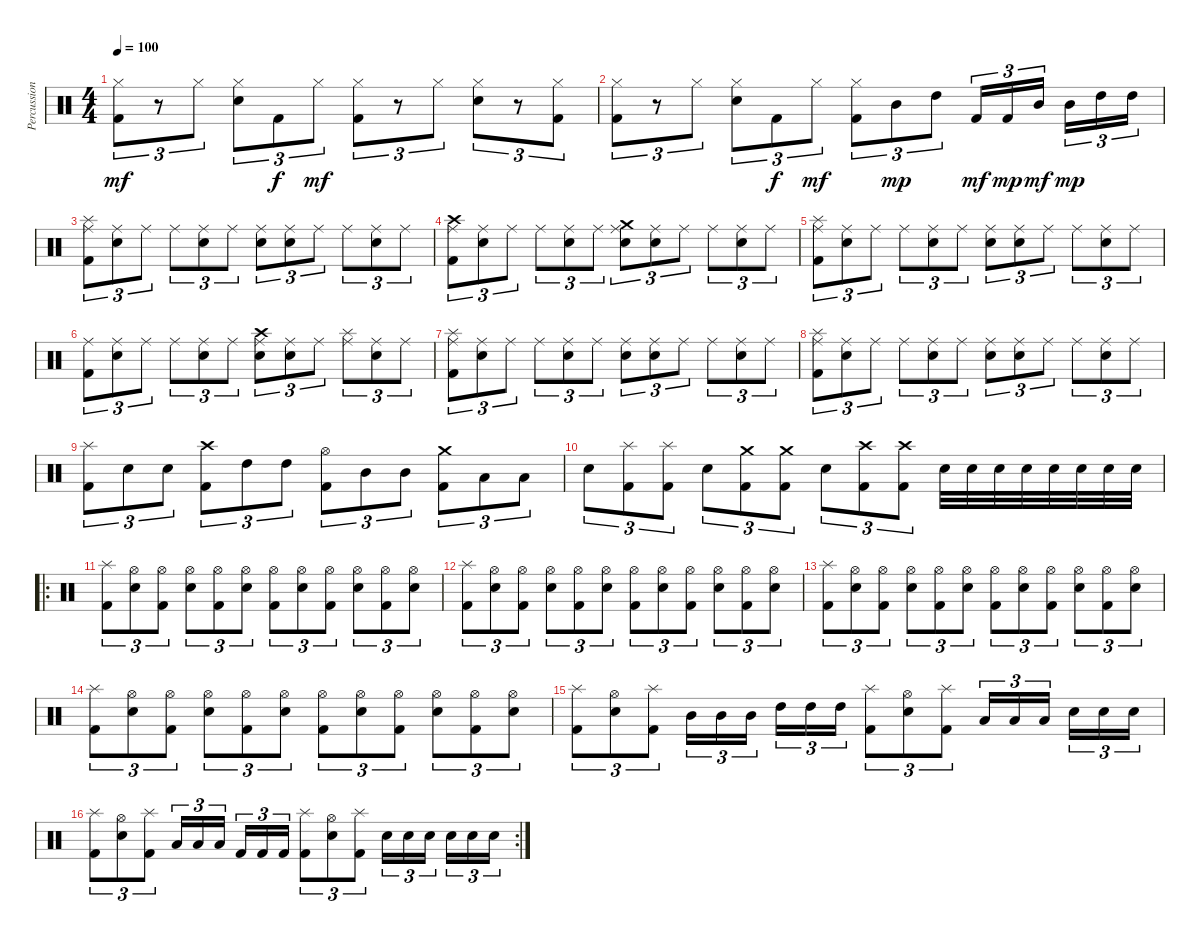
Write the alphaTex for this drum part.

\track ("Percussion" "Percussion") {instrument percussion}
\staff {score}
\articulation defaults
\ts (4 4)
\tempo 100
\clef neutral
\ks c
("Kick (hit) 2" "Hi-Hat (closed)").8{tu (3 2) dy mf} r.8{tu (3 2)} "Hi-Hat (closed)".8{tu (3 2)} ("Snare (hit) 2" "Hi-Hat (closed)").8{tu (3 2)} "Kick (hit) 2".8{tu (3 2) dy f} "Hi-Hat (closed)".8{tu (3 2) dy mf} ("Kick (hit) 2" "Hi-Hat (closed)").8{tu (3 2)} r.8{tu (3 2)} "Hi-Hat (closed)".8{tu (3 2)} ("Snare (hit) 2" "Hi-Hat (closed)").8{tu (3 2)} r.8{tu (3 2)} ("Kick (hit) 2" "Hi-Hat (closed)").8{tu (3 2)} |
("Kick (hit) 2" "Hi-Hat (closed)").8{tu (3 2)} r.8{tu (3 2)} "Hi-Hat (closed)".8{tu (3 2)} ("Snare (hit) 2" "Hi-Hat (closed)").8{tu (3 2)} "Kick (hit) 2".8{tu (3 2) dy f} "Hi-Hat (closed)".8{tu (3 2) dy mf} ("Kick (hit) 2" "Hi-Hat (closed)").8{tu (3 2)} "Mid Tom (hit)".8{tu (3 2) dy mp} "High Tom (hit)".8{tu (3 2)} "Kick (hit) 2".16{tu (3 2) dy mf} "Kick (hit) 2".16{tu (3 2) dy mp} "Mid Tom (hit)".16{tu (3 2) dy mf beam splitsecondary} "Mid Tom (hit)".16{tu (3 2) dy mp} "High Tom (hit)".16{tu (3 2)} "High Tom (hit)".16{tu (3 2)} |
("Splash (hit)" "Kick (hit) 2" "Ride (middle)").8{tu (3 2)} ("Snare (hit) 2" "Ride (middle)").8{tu (3 2)} "Ride (middle)".8{tu (3 2)} "Ride (middle)".8{tu (3 2)} ("Snare (hit) 2" "Ride (middle)").8{tu (3 2)} "Ride (middle)".8{tu (3 2)} ("Snare (hit) 2" "Ride (middle)").8{tu (3 2)} ("Snare (hit) 2" "Ride (middle)").8{tu (3 2)} "Ride (middle)".8{tu (3 2)} "Ride (middle)".8{tu (3 2)} ("Snare (hit) 2" "Ride (middle)").8{tu (3 2)} "Ride (middle)".8{tu (3 2)} |
("Crash high (hit)" "Kick (hit) 2" "Ride (middle)").8{tu (3 2)} ("Snare (hit) 2" "Ride (middle)").8{tu (3 2)} "Ride (middle)".8{tu (3 2)} "Ride (middle)".8{tu (3 2)} ("Snare (hit) 2" "Ride (middle)").8{tu (3 2)} "Ride (middle)".8{tu (3 2)} ("Crash medium (hit)" "Snare (hit) 2" "Ride (middle)").8{tu (3 2)} ("Snare (hit) 2" "Ride (middle)").8{tu (3 2)} "Ride (middle)".8{tu (3 2)} "Ride (middle)".8{tu (3 2)} ("Snare (hit) 2" "Ride (middle)").8{tu (3 2)} "Ride (middle)".8{tu (3 2)} |
("Splash (hit)" "Kick (hit) 2" "Ride (middle)").8{tu (3 2)} ("Snare (hit) 2" "Ride (middle)").8{tu (3 2)} "Ride (middle)".8{tu (3 2)} "Ride (middle)".8{tu (3 2)} ("Snare (hit) 2" "Ride (middle)").8{tu (3 2)} "Ride (middle)".8{tu (3 2)} ("Snare (hit) 2" "Ride (middle)").8{tu (3 2)} ("Snare (hit) 2" "Ride (middle)").8{tu (3 2)} "Ride (middle)".8{tu (3 2)} "Ride (middle)".8{tu (3 2)} ("Snare (hit) 2" "Ride (middle)").8{tu (3 2)} "Ride (middle)".8{tu (3 2)} |
("Kick (hit) 2" "Ride (middle)").8{tu (3 2)} ("Snare (hit) 2" "Ride (middle)").8{tu (3 2)} "Ride (middle)".8{tu (3 2)} "Ride (middle)".8{tu (3 2)} ("Snare (hit) 2" "Ride (middle)").8{tu (3 2)} "Ride (middle)".8{tu (3 2)} ("Crash high (hit)" "Snare (hit) 2" "Ride (middle)").8{tu (3 2)} ("Snare (hit) 2" "Ride (middle)").8{tu (3 2)} "Ride (middle)".8{tu (3 2)} ("Splash (hit)" "Ride (middle)").8{tu (3 2)} ("Snare (hit) 2" "Ride (middle)").8{tu (3 2)} "Ride (middle)".8{tu (3 2)} |
("Splash (hit)" "Kick (hit) 2" "Ride (middle)").8{tu (3 2)} ("Snare (hit) 2" "Ride (middle)").8{tu (3 2)} "Ride (middle)".8{tu (3 2)} "Ride (middle)".8{tu (3 2)} ("Snare (hit) 2" "Ride (middle)").8{tu (3 2)} "Ride (middle)".8{tu (3 2)} ("Snare (hit) 2" "Ride (middle)").8{tu (3 2)} ("Snare (hit) 2" "Ride (middle)").8{tu (3 2)} "Ride (middle)".8{tu (3 2)} "Ride (middle)".8{tu (3 2)} ("Snare (hit) 2" "Ride (middle)").8{tu (3 2)} "Ride (middle)".8{tu (3 2)} |
("Splash (hit)" "Kick (hit) 2" "Ride (middle)").8{tu (3 2)} ("Snare (hit) 2" "Ride (middle)").8{tu (3 2)} "Ride (middle)".8{tu (3 2)} "Ride (middle)".8{tu (3 2)} ("Snare (hit) 2" "Ride (middle)").8{tu (3 2)} "Ride (middle)".8{tu (3 2)} ("Snare (hit) 2" "Ride (middle)").8{tu (3 2)} ("Snare (hit) 2" "Ride (middle)").8{tu (3 2)} "Ride (middle)".8{tu (3 2)} "Ride (middle)".8{tu (3 2)} ("Snare (hit) 2" "Ride (middle)").8{tu (3 2)} "Ride (middle)".8{tu (3 2)} |
("Kick (hit) 2" "Splash (hit)").8{tu (3 2)} "Snare (hit) 2".8{tu (3 2)} "Snare (hit) 2".8{tu (3 2)} ("Kick (hit) 2" "Crash high (hit)").8{tu (3 2)} "High Tom (hit)".8{tu (3 2)} "High Tom (hit)".8{tu (3 2)} ("Kick (hit) 2" "Hi-Hat (open)").8{tu (3 2)} "Mid Tom (hit)".8{tu (3 2)} "Mid Tom (hit)".8{tu (3 2)} ("Kick (hit) 2" "Crash medium (hit)").8{tu (3 2)} "Low Tom (hit)".8{tu (3 2)} "Low Tom (hit)".8{tu (3 2)} |
"Snare (hit) 2".8{tu (3 2)} ("Splash (hit)" "Kick (hit) 2").8{tu (3 2)} ("Splash (hit)" "Kick (hit) 2").8{tu (3 2)} "Snare (hit) 2".8{tu (3 2)} ("Crash medium (hit)" "Kick (hit) 2").8{tu (3 2)} ("Crash medium (hit)" "Kick (hit) 2").8{tu (3 2)} "Snare (hit) 2".8{tu (3 2)} ("Crash high (hit)" "Kick (hit) 2").8{tu (3 2)} ("Crash high (hit)" "Kick (hit) 2").8{tu (3 2)} "Snare (hit) 2".32 "Snare (hit) 2".32 "Snare (hit) 2".32 "Snare (hit) 2".32 "Snare (hit) 2".32 "Snare (hit) 2".32 "Snare (hit) 2".32 "Snare (hit) 2".32 |
\ro
("Splash (hit)" "Kick (hit) 2").8{tu (3 2)} ("Hi-Hat (open)" "Snare (hit) 2").8{tu (3 2)} ("Hi-Hat (open)" "Kick (hit) 2").8{tu (3 2)} ("Hi-Hat (open)" "Snare (hit) 2").8{tu (3 2)} ("Hi-Hat (open)" "Kick (hit) 2").8{tu (3 2)} ("Hi-Hat (open)" "Snare (hit) 2").8{tu (3 2)} ("Hi-Hat (open)" "Kick (hit) 2").8{tu (3 2)} ("Hi-Hat (open)" "Snare (hit) 2").8{tu (3 2)} ("Hi-Hat (open)" "Kick (hit) 2").8{tu (3 2)} ("Hi-Hat (open)" "Snare (hit) 2").8{tu (3 2)} ("Hi-Hat (open)" "Kick (hit) 2").8{tu (3 2)} ("Hi-Hat (open)" "Snare (hit) 2").8{tu (3 2)} |
("Splash (hit)" "Kick (hit) 2").8{tu (3 2)} ("Hi-Hat (open)" "Snare (hit) 2").8{tu (3 2)} ("Hi-Hat (open)" "Kick (hit) 2").8{tu (3 2)} ("Hi-Hat (open)" "Snare (hit) 2").8{tu (3 2)} ("Hi-Hat (open)" "Kick (hit) 2").8{tu (3 2)} ("Hi-Hat (open)" "Snare (hit) 2").8{tu (3 2)} ("Hi-Hat (open)" "Kick (hit) 2").8{tu (3 2)} ("Hi-Hat (open)" "Snare (hit) 2").8{tu (3 2)} ("Hi-Hat (open)" "Kick (hit) 2").8{tu (3 2)} ("Hi-Hat (open)" "Snare (hit) 2").8{tu (3 2)} ("Hi-Hat (open)" "Kick (hit) 2").8{tu (3 2)} ("Hi-Hat (open)" "Snare (hit) 2").8{tu (3 2)} |
("Splash (hit)" "Kick (hit) 2").8{tu (3 2)} ("Hi-Hat (open)" "Snare (hit) 2").8{tu (3 2)} ("Hi-Hat (open)" "Kick (hit) 2").8{tu (3 2)} ("Hi-Hat (open)" "Snare (hit) 2").8{tu (3 2)} ("Hi-Hat (open)" "Kick (hit) 2").8{tu (3 2)} ("Hi-Hat (open)" "Snare (hit) 2").8{tu (3 2)} ("Hi-Hat (open)" "Kick (hit) 2").8{tu (3 2)} ("Hi-Hat (open)" "Snare (hit) 2").8{tu (3 2)} ("Hi-Hat (open)" "Kick (hit) 2").8{tu (3 2)} ("Hi-Hat (open)" "Snare (hit) 2").8{tu (3 2)} ("Hi-Hat (open)" "Kick (hit) 2").8{tu (3 2)} ("Hi-Hat (open)" "Snare (hit) 2").8{tu (3 2)} |
("Splash (hit)" "Kick (hit) 2").8{tu (3 2)} ("Hi-Hat (open)" "Snare (hit) 2").8{tu (3 2)} ("Hi-Hat (open)" "Kick (hit) 2").8{tu (3 2)} ("Hi-Hat (open)" "Snare (hit) 2").8{tu (3 2)} ("Hi-Hat (open)" "Kick (hit) 2").8{tu (3 2)} ("Hi-Hat (open)" "Snare (hit) 2").8{tu (3 2)} ("Hi-Hat (open)" "Kick (hit) 2").8{tu (3 2)} ("Hi-Hat (open)" "Snare (hit) 2").8{tu (3 2)} ("Hi-Hat (open)" "Kick (hit) 2").8{tu (3 2)} ("Hi-Hat (open)" "Snare (hit) 2").8{tu (3 2)} ("Hi-Hat (open)" "Kick (hit) 2").8{tu (3 2)} ("Hi-Hat (open)" "Snare (hit) 2").8{tu (3 2)} |
("Splash (hit)" "Kick (hit) 2").8{tu (3 2)} ("Hi-Hat (open)" "Snare (hit) 2").8{tu (3 2)} ("Splash (hit)" "Kick (hit) 2").8{tu (3 2)} "Mid Tom (hit)".16{tu (3 2)} "Mid Tom (hit)".16{tu (3 2)} "Mid Tom (hit)".16{tu (3 2) beam splitsecondary} "High Tom (hit)".16{tu (3 2)} "High Tom (hit)".16{tu (3 2)} "High Tom (hit)".16{tu (3 2)} ("Splash (hit)" "Kick (hit) 2").8{tu (3 2)} ("Hi-Hat (open)" "Snare (hit) 2").8{tu (3 2)} ("Splash (hit)" "Kick (hit) 2").8{tu (3 2)} "Low Tom (hit)".16{tu (3 2)} "Low Tom (hit)".16{tu (3 2)} "Low Tom (hit)".16{tu (3 2) beam splitsecondary} "Snare (hit) 2".16{tu (3 2)} "Snare (hit) 2".16{tu (3 2)} "Snare (hit) 2".16{tu (3 2)} |
\rc 2
("Splash (hit)" "Kick (hit) 2").8{tu (3 2)} ("Hi-Hat (open)" "Snare (hit) 2").8{tu (3 2)} ("Splash (hit)" "Kick (hit) 2").8{tu (3 2)} "Low Tom (hit)".16{tu (3 2)} "Low Tom (hit)".16{tu (3 2)} "Low Tom (hit)".16{tu (3 2) beam splitsecondary} "Kick (hit) 2".16{tu (3 2)} "Kick (hit) 2".16{tu (3 2)} "Kick (hit) 2".16{tu (3 2)} ("Splash (hit)" "Kick (hit) 2").8{tu (3 2)} ("Hi-Hat (open)" "Snare (hit) 2").8{tu (3 2)} ("Splash (hit)" "Kick (hit) 2").8{tu (3 2)} "Snare (hit) 2".16{tu (3 2)} "Snare (hit) 2".16{tu (3 2)} "Snare (hit) 2".16{tu (3 2) beam splitsecondary} "Snare (hit) 2".16{tu (3 2)} "Snare (hit) 2".16{tu (3 2)} "Snare (hit) 2".16{tu (3 2)}
